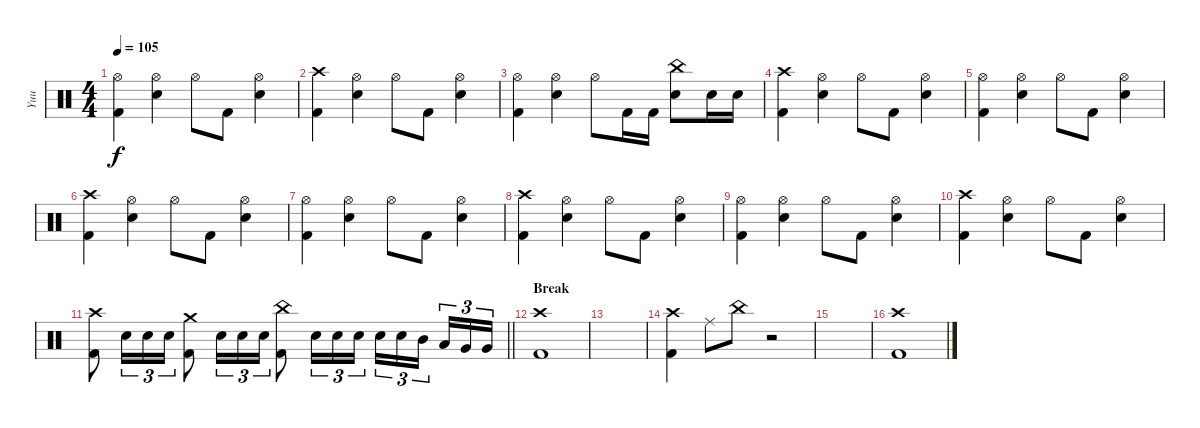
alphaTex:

\track ("Yuu" "Yuu") {instrument percussion}
\staff {score}
\articulation defaults
\ts (4 4)
\tempo 105
\clef neutral
\ks c
("Hi-Hat (open)" "Kick (hit) 2").4{dy f} ("Hi-Hat (open)" "Electric Snare (hit)").4 "Hi-Hat (open)".8 "Kick (hit) 2".8 ("Hi-Hat (open)" "Electric Snare (hit)").4 |
("Crash high (hit)" "Kick (hit) 2").4 ("Hi-Hat (open)" "Electric Snare (hit)").4 "Hi-Hat (open)".8 "Kick (hit) 2".8 ("Hi-Hat (open)" "Electric Snare (hit)").4 |
("Hi-Hat (open)" "Kick (hit) 2").4 ("Hi-Hat (open)" "Electric Snare (hit)").4 "Hi-Hat (open)".8 "Kick (hit) 2".16 "Kick (hit) 2".16 ("China (hit)" "Electric Snare (hit)").8 "Electric Snare (hit)".16 "Electric Snare (hit)".16 |
("Crash high (hit)" "Kick (hit) 2").4 ("Hi-Hat (open)" "Electric Snare (hit)").4 "Hi-Hat (open)".8 "Kick (hit) 2".8 ("Hi-Hat (open)" "Electric Snare (hit)").4 |
("Hi-Hat (open)" "Kick (hit) 2").4 ("Hi-Hat (open)" "Electric Snare (hit)").4 "Hi-Hat (open)".8 "Kick (hit) 2".8 ("Hi-Hat (open)" "Electric Snare (hit)").4 |
("Crash high (hit)" "Kick (hit) 2").4 ("Hi-Hat (open)" "Electric Snare (hit)").4 "Hi-Hat (open)".8 "Kick (hit) 2".8 ("Hi-Hat (open)" "Electric Snare (hit)").4 |
("Hi-Hat (open)" "Kick (hit) 2").4 ("Hi-Hat (open)" "Electric Snare (hit)").4 "Hi-Hat (open)".8 "Kick (hit) 2".8 ("Hi-Hat (open)" "Electric Snare (hit)").4 |
("Crash high (hit)" "Kick (hit) 2").4 ("Hi-Hat (open)" "Electric Snare (hit)").4 "Hi-Hat (open)".8 "Kick (hit) 2".8 ("Hi-Hat (open)" "Electric Snare (hit)").4 |
("Hi-Hat (open)" "Kick (hit) 2").4 ("Hi-Hat (open)" "Electric Snare (hit)").4 "Hi-Hat (open)".8 "Kick (hit) 2".8 ("Hi-Hat (open)" "Electric Snare (hit)").4 |
("Crash high (hit)" "Kick (hit) 2").4 ("Hi-Hat (open)" "Electric Snare (hit)").4 "Hi-Hat (open)".8 "Kick (hit) 2".8 ("Hi-Hat (open)" "Electric Snare (hit)").4 |
\barLineRight lightlight
("Crash high (hit)" "Kick (hit) 2").8 "Electric Snare (hit)".16{tu (3 2)} "Electric Snare (hit)".16{tu (3 2)} "Electric Snare (hit)".16{tu (3 2)} ("Crash medium (hit)" "Kick (hit) 2").8 "Electric Snare (hit)".16{tu (3 2)} "Electric Snare (hit)".16{tu (3 2)} "Electric Snare (hit)".16{tu (3 2)} ("China (hit)" "Kick (hit) 2").8 "Electric Snare (hit)".16{tu (3 2)} "Electric Snare (hit)".16{tu (3 2)} "Electric Snare (hit)".16{tu (3 2)} "Electric Snare (hit)".16{tu (3 2)} "Electric Snare (hit)".16{tu (3 2)} "Mid Tom (hit)".16{tu (3 2) beam splitsecondary} "Low Tom (hit)".16{tu (3 2)} "Very Low Tom (hit)".16{tu (3 2)} "Very Low Tom (hit)".16{tu (3 2)} |
\section ("" "Break")
("Crash high (hit)" "Kick (hit) 2").1 |
|
("Crash high (hit)" "Kick (hit) 2").4 "Ride (middle)".8 "China (hit)".8 r.2 |
|
("Crash high (hit)" "Kick (hit) 2").1
